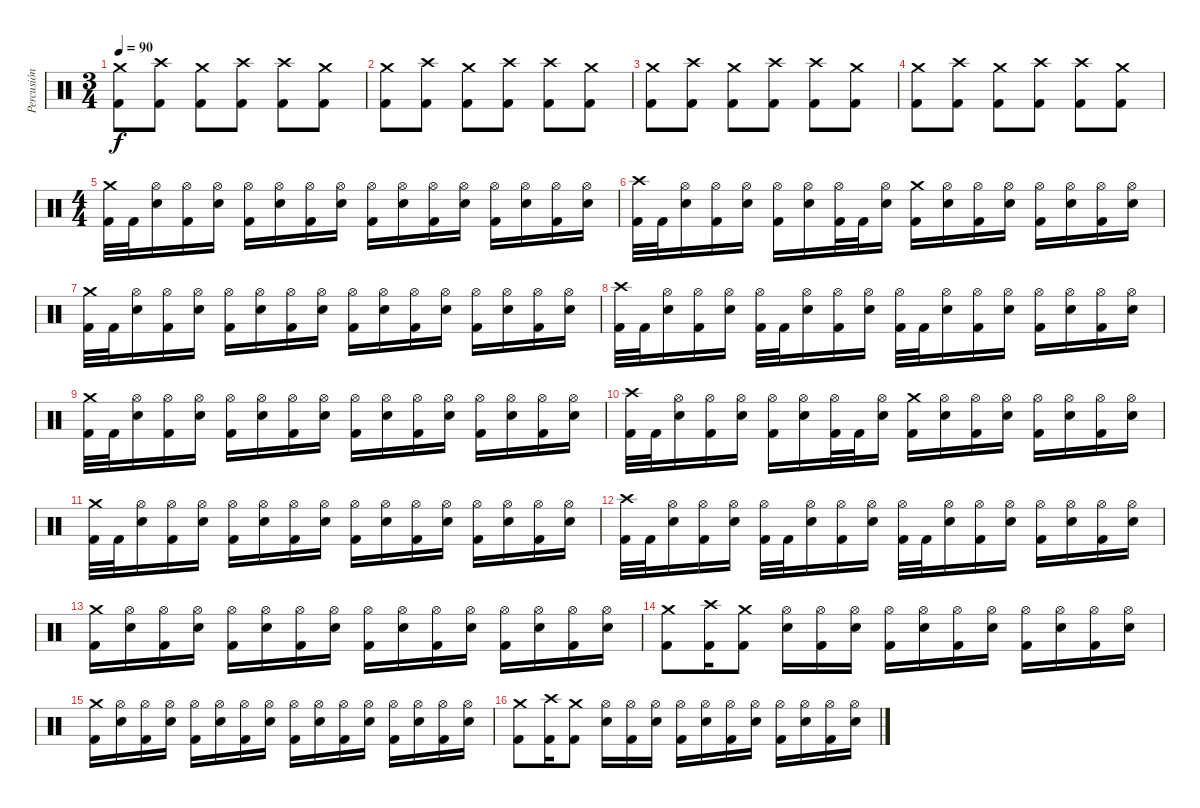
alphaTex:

\track ("Percusión" "Percusión") {instrument percussion}
\staff {score}
\articulation defaults
\ts (3 4)
\tempo 90
\clef neutral
\ks c
("Crash medium (hit)" "Kick (hit) 2").8{dy f} ("Crash high (hit)" "Kick (hit) 2").8 ("Crash medium (hit)" "Kick (hit) 2").8 ("Crash high (hit)" "Kick (hit) 2").8 ("Crash high (hit)" "Kick (hit) 2").8 ("Crash medium (hit)" "Kick (hit) 2").8 |
("Crash medium (hit)" "Kick (hit) 2").8 ("Crash high (hit)" "Kick (hit) 2").8 ("Crash medium (hit)" "Kick (hit) 2").8 ("Crash high (hit)" "Kick (hit) 2").8 ("Crash high (hit)" "Kick (hit) 2").8 ("Crash medium (hit)" "Kick (hit) 2").8 |
("Crash medium (hit)" "Kick (hit) 2").8 ("Crash high (hit)" "Kick (hit) 2").8 ("Crash medium (hit)" "Kick (hit) 2").8 ("Crash high (hit)" "Kick (hit) 2").8 ("Crash high (hit)" "Kick (hit) 2").8 ("Crash medium (hit)" "Kick (hit) 2").8 |
("Crash medium (hit)" "Kick (hit) 2").8 ("Crash high (hit)" "Kick (hit) 2").8 ("Crash medium (hit)" "Kick (hit) 2").8 ("Crash high (hit)" "Kick (hit) 2").8 ("Crash high (hit)" "Kick (hit) 2").8 ("Crash medium (hit)" "Kick (hit) 2").8 |
\ts (4 4)
("Crash medium (hit)" "Kick (hit) 2").32 "Kick (hit) 2".32 ("Hi-Hat (open)" "Snare (hit) 2").16 ("Hi-Hat (open)" "Kick (hit) 2").16 ("Hi-Hat (open)" "Snare (hit) 2").16 ("Hi-Hat (open)" "Kick (hit) 2").16 ("Hi-Hat (open)" "Snare (hit) 2").16 ("Hi-Hat (open)" "Kick (hit) 2").16 ("Hi-Hat (open)" "Snare (hit) 2").16 ("Hi-Hat (open)" "Kick (hit) 2").16 ("Hi-Hat (open)" "Snare (hit) 2").16 ("Hi-Hat (open)" "Kick (hit) 2").16 ("Hi-Hat (open)" "Snare (hit) 2").16 ("Hi-Hat (open)" "Kick (hit) 2").16 ("Hi-Hat (open)" "Snare (hit) 2").16 ("Hi-Hat (open)" "Kick (hit) 2").16 ("Hi-Hat (open)" "Snare (hit) 2").16 |
("Crash high (hit)" "Kick (hit) 2").32 "Kick (hit) 2".32 ("Hi-Hat (open)" "Snare (hit) 2").16 ("Hi-Hat (open)" "Kick (hit) 2").16 ("Hi-Hat (open)" "Snare (hit) 2").16 ("Hi-Hat (open)" "Kick (hit) 2").16 ("Hi-Hat (open)" "Snare (hit) 2").16 ("Hi-Hat (open)" "Kick (hit) 2").32 "Kick (hit) 2".32 ("Hi-Hat (open)" "Snare (hit) 2").16 ("Crash medium (hit)" "Kick (hit) 2").16 ("Hi-Hat (open)" "Snare (hit) 2").16 ("Hi-Hat (open)" "Kick (hit) 2").16 ("Hi-Hat (open)" "Snare (hit) 2").16 ("Hi-Hat (open)" "Kick (hit) 2").16 ("Hi-Hat (open)" "Snare (hit) 2").16 ("Hi-Hat (open)" "Kick (hit) 2").16 ("Hi-Hat (open)" "Snare (hit) 2").16 |
("Crash medium (hit)" "Kick (hit) 2").32 "Kick (hit) 2".32 ("Hi-Hat (open)" "Snare (hit) 2").16 ("Hi-Hat (open)" "Kick (hit) 2").16 ("Hi-Hat (open)" "Snare (hit) 2").16 ("Hi-Hat (open)" "Kick (hit) 2").16 ("Hi-Hat (open)" "Snare (hit) 2").16 ("Hi-Hat (open)" "Kick (hit) 2").16 ("Hi-Hat (open)" "Snare (hit) 2").16 ("Hi-Hat (open)" "Kick (hit) 2").16 ("Hi-Hat (open)" "Snare (hit) 2").16 ("Hi-Hat (open)" "Kick (hit) 2").16 ("Hi-Hat (open)" "Snare (hit) 2").16 ("Hi-Hat (open)" "Kick (hit) 2").16 ("Hi-Hat (open)" "Snare (hit) 2").16 ("Hi-Hat (open)" "Kick (hit) 2").16 ("Hi-Hat (open)" "Snare (hit) 2").16 |
("Crash high (hit)" "Kick (hit) 2").32 "Kick (hit) 2".32 ("Hi-Hat (open)" "Snare (hit) 2").16 ("Hi-Hat (open)" "Kick (hit) 2").16 ("Hi-Hat (open)" "Snare (hit) 2").16 ("Hi-Hat (open)" "Kick (hit) 2").32 "Kick (hit) 2".32 ("Hi-Hat (open)" "Snare (hit) 2").16 ("Hi-Hat (open)" "Kick (hit) 2").16 ("Hi-Hat (open)" "Snare (hit) 2").16 ("Hi-Hat (open)" "Kick (hit) 2").32 "Kick (hit) 2".32 ("Hi-Hat (open)" "Snare (hit) 2").16 ("Hi-Hat (open)" "Kick (hit) 2").16 ("Hi-Hat (open)" "Snare (hit) 2").16 ("Hi-Hat (open)" "Kick (hit) 2").16 ("Hi-Hat (open)" "Snare (hit) 2").16 ("Hi-Hat (open)" "Kick (hit) 2").16 ("Hi-Hat (open)" "Snare (hit) 2").16 |
("Crash medium (hit)" "Kick (hit) 2").32 "Kick (hit) 2".32 ("Hi-Hat (open)" "Snare (hit) 2").16 ("Hi-Hat (open)" "Kick (hit) 2").16 ("Hi-Hat (open)" "Snare (hit) 2").16 ("Hi-Hat (open)" "Kick (hit) 2").16 ("Hi-Hat (open)" "Snare (hit) 2").16 ("Hi-Hat (open)" "Kick (hit) 2").16 ("Hi-Hat (open)" "Snare (hit) 2").16 ("Hi-Hat (open)" "Kick (hit) 2").16 ("Hi-Hat (open)" "Snare (hit) 2").16 ("Hi-Hat (open)" "Kick (hit) 2").16 ("Hi-Hat (open)" "Snare (hit) 2").16 ("Hi-Hat (open)" "Kick (hit) 2").16 ("Hi-Hat (open)" "Snare (hit) 2").16 ("Hi-Hat (open)" "Kick (hit) 2").16 ("Hi-Hat (open)" "Snare (hit) 2").16 |
("Crash high (hit)" "Kick (hit) 2").32 "Kick (hit) 2".32 ("Hi-Hat (open)" "Snare (hit) 2").16 ("Hi-Hat (open)" "Kick (hit) 2").16 ("Hi-Hat (open)" "Snare (hit) 2").16 ("Hi-Hat (open)" "Kick (hit) 2").16 ("Hi-Hat (open)" "Snare (hit) 2").16 ("Hi-Hat (open)" "Kick (hit) 2").32 "Kick (hit) 2".32 ("Hi-Hat (open)" "Snare (hit) 2").16 ("Crash medium (hit)" "Kick (hit) 2").16 ("Hi-Hat (open)" "Snare (hit) 2").16 ("Hi-Hat (open)" "Kick (hit) 2").16 ("Hi-Hat (open)" "Snare (hit) 2").16 ("Hi-Hat (open)" "Kick (hit) 2").16 ("Hi-Hat (open)" "Snare (hit) 2").16 ("Hi-Hat (open)" "Kick (hit) 2").16 ("Hi-Hat (open)" "Snare (hit) 2").16 |
("Crash medium (hit)" "Kick (hit) 2").32 "Kick (hit) 2".32 ("Hi-Hat (open)" "Snare (hit) 2").16 ("Hi-Hat (open)" "Kick (hit) 2").16 ("Hi-Hat (open)" "Snare (hit) 2").16 ("Hi-Hat (open)" "Kick (hit) 2").16 ("Hi-Hat (open)" "Snare (hit) 2").16 ("Hi-Hat (open)" "Kick (hit) 2").16 ("Hi-Hat (open)" "Snare (hit) 2").16 ("Hi-Hat (open)" "Kick (hit) 2").16 ("Hi-Hat (open)" "Snare (hit) 2").16 ("Hi-Hat (open)" "Kick (hit) 2").16 ("Hi-Hat (open)" "Snare (hit) 2").16 ("Hi-Hat (open)" "Kick (hit) 2").16 ("Hi-Hat (open)" "Snare (hit) 2").16 ("Hi-Hat (open)" "Kick (hit) 2").16 ("Hi-Hat (open)" "Snare (hit) 2").16 |
("Crash high (hit)" "Kick (hit) 2").32 "Kick (hit) 2".32 ("Hi-Hat (open)" "Snare (hit) 2").16 ("Hi-Hat (open)" "Kick (hit) 2").16 ("Hi-Hat (open)" "Snare (hit) 2").16 ("Hi-Hat (open)" "Kick (hit) 2").32 "Kick (hit) 2".32 ("Hi-Hat (open)" "Snare (hit) 2").16 ("Hi-Hat (open)" "Kick (hit) 2").16 ("Hi-Hat (open)" "Snare (hit) 2").16 ("Hi-Hat (open)" "Kick (hit) 2").32 "Kick (hit) 2".32 ("Hi-Hat (open)" "Snare (hit) 2").16 ("Hi-Hat (open)" "Kick (hit) 2").16 ("Hi-Hat (open)" "Snare (hit) 2").16 ("Hi-Hat (open)" "Kick (hit) 2").16 ("Hi-Hat (open)" "Snare (hit) 2").16 ("Hi-Hat (open)" "Kick (hit) 2").16 ("Hi-Hat (open)" "Snare (hit) 2").16 |
("Crash medium (hit)" "Kick (hit) 2").16 ("Hi-Hat (open)" "Snare (hit) 2").16 ("Hi-Hat (open)" "Kick (hit) 2").16 ("Hi-Hat (open)" "Snare (hit) 2").16 ("Hi-Hat (open)" "Kick (hit) 2").16 ("Hi-Hat (open)" "Snare (hit) 2").16 ("Hi-Hat (open)" "Kick (hit) 2").16 ("Hi-Hat (open)" "Snare (hit) 2").16 ("Hi-Hat (open)" "Kick (hit) 2").16 ("Hi-Hat (open)" "Snare (hit) 2").16 ("Hi-Hat (open)" "Kick (hit) 2").16 ("Hi-Hat (open)" "Snare (hit) 2").16 ("Hi-Hat (open)" "Kick (hit) 2").16 ("Hi-Hat (open)" "Snare (hit) 2").16 ("Hi-Hat (open)" "Kick (hit) 2").16 ("Hi-Hat (open)" "Snare (hit) 2").16 |
("Crash medium (hit)" "Kick (hit) 2").8 ("Crash high (hit)" "Kick (hit) 2").16 ("Crash medium (hit)" "Kick (hit) 2").8 ("Hi-Hat (open)" "Snare (hit) 2").16 ("Hi-Hat (open)" "Kick (hit) 2").16 ("Hi-Hat (open)" "Snare (hit) 2").16 ("Hi-Hat (open)" "Kick (hit) 2").16 ("Hi-Hat (open)" "Snare (hit) 2").16 ("Hi-Hat (open)" "Kick (hit) 2").16 ("Hi-Hat (open)" "Snare (hit) 2").16 ("Hi-Hat (open)" "Kick (hit) 2").16 ("Hi-Hat (open)" "Snare (hit) 2").16 ("Hi-Hat (open)" "Kick (hit) 2").16 ("Hi-Hat (open)" "Snare (hit) 2").16 |
("Crash medium (hit)" "Kick (hit) 2").16 ("Hi-Hat (open)" "Snare (hit) 2").16 ("Hi-Hat (open)" "Kick (hit) 2").16 ("Hi-Hat (open)" "Snare (hit) 2").16 ("Hi-Hat (open)" "Kick (hit) 2").16 ("Hi-Hat (open)" "Snare (hit) 2").16 ("Hi-Hat (open)" "Kick (hit) 2").16 ("Hi-Hat (open)" "Snare (hit) 2").16 ("Hi-Hat (open)" "Kick (hit) 2").16 ("Hi-Hat (open)" "Snare (hit) 2").16 ("Hi-Hat (open)" "Kick (hit) 2").16 ("Hi-Hat (open)" "Snare (hit) 2").16 ("Hi-Hat (open)" "Kick (hit) 2").16 ("Hi-Hat (open)" "Snare (hit) 2").16 ("Hi-Hat (open)" "Kick (hit) 2").16 ("Hi-Hat (open)" "Snare (hit) 2").16 |
("Crash medium (hit)" "Kick (hit) 2").8 ("Crash high (hit)" "Kick (hit) 2").16 ("Crash medium (hit)" "Kick (hit) 2").8 ("Hi-Hat (open)" "Snare (hit) 2").16 ("Hi-Hat (open)" "Kick (hit) 2").16 ("Hi-Hat (open)" "Snare (hit) 2").16 ("Hi-Hat (open)" "Kick (hit) 2").16 ("Hi-Hat (open)" "Snare (hit) 2").16 ("Hi-Hat (open)" "Kick (hit) 2").16 ("Hi-Hat (open)" "Snare (hit) 2").16 ("Hi-Hat (open)" "Kick (hit) 2").16 ("Hi-Hat (open)" "Snare (hit) 2").16 ("Hi-Hat (open)" "Kick (hit) 2").16 ("Hi-Hat (open)" "Snare (hit) 2").16
